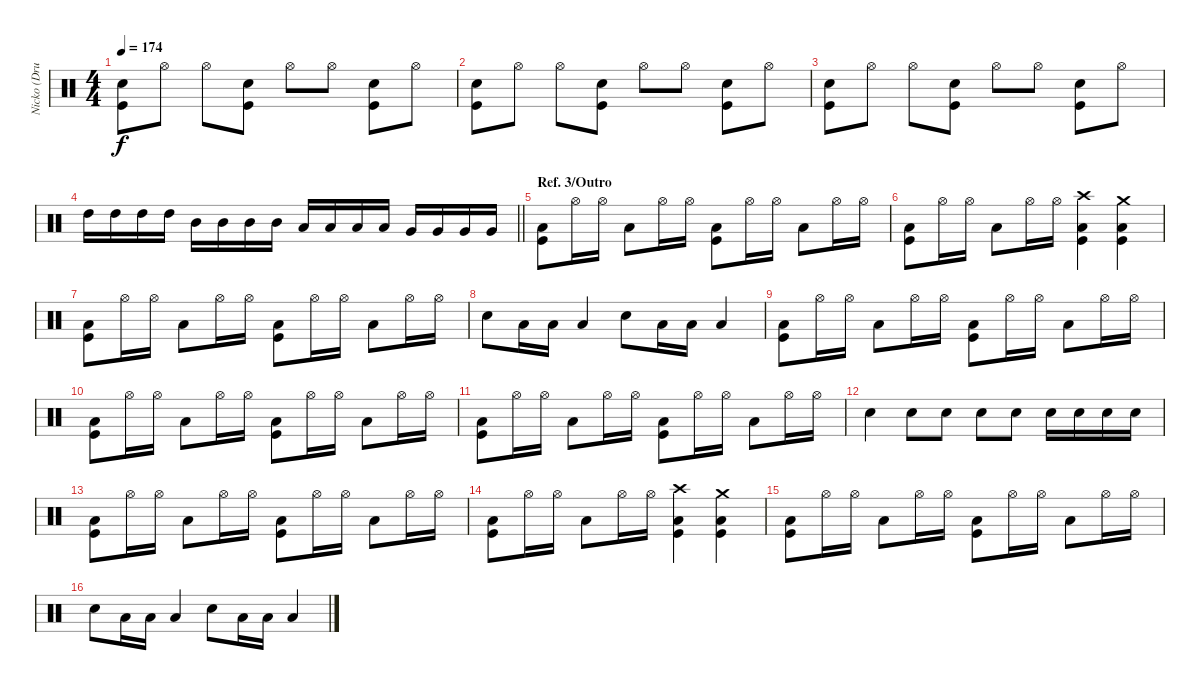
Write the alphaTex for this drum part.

\track ("Nicko (Drums)" "Nicko (Dru") {instrument percussion}
\staff {score}
\articulation defaults
\ts (4 4)
\tempo 174
\clef neutral
\ks c
("Snare (hit) 2" "Kick (hit)").8{dy f} "Hi-Hat (open)".8 "Hi-Hat (open)".8 ("Snare (hit) 2" "Kick (hit)").8 "Hi-Hat (open)".8 "Hi-Hat (open)".8 ("Snare (hit) 2" "Kick (hit)").8 "Hi-Hat (open)".8 |
("Snare (hit) 2" "Kick (hit)").8 "Hi-Hat (open)".8 "Hi-Hat (open)".8 ("Snare (hit) 2" "Kick (hit)").8 "Hi-Hat (open)".8 "Hi-Hat (open)".8 ("Snare (hit) 2" "Kick (hit)").8 "Hi-Hat (open)".8 |
("Snare (hit) 2" "Kick (hit)").8 "Hi-Hat (open)".8 "Hi-Hat (open)".8 ("Snare (hit) 2" "Kick (hit)").8 "Hi-Hat (open)".8 "Hi-Hat (open)".8 ("Snare (hit) 2" "Kick (hit)").8 "Hi-Hat (open)".8 |
\barLineRight lightlight "High Tom (hit)".16 "High Tom (hit)".16 "High Tom (hit)".16 "High Tom (hit)".16 "Mid Tom (hit)".16 "Mid Tom (hit)".16 "Mid Tom (hit)".16 "Mid Tom (hit)".16 "Low Tom (hit)".16 "Low Tom (hit)".16 "Low Tom (hit)".16 "Low Tom (hit)".16 "Very Low Tom (hit)".16 "Very Low Tom (hit)".16 "Very Low Tom (hit)".16 "Very Low Tom (hit)".16
|
\section ("" "Ref. 3/Outro")
("Low Tom (hit)" "Kick (hit)").8 "Hi-Hat (open)".16 "Hi-Hat (open)".16 "Low Tom (hit)".8 "Hi-Hat (open)".16 "Hi-Hat (open)".16 ("Low Tom (hit)" "Kick (hit)").8 "Hi-Hat (open)".16 "Hi-Hat (open)".16 "Low Tom (hit)".8 "Hi-Hat (open)".16 "Hi-Hat (open)".16 |
("Low Tom (hit)" "Kick (hit)").8 "Hi-Hat (open)".16 "Hi-Hat (open)".16 "Low Tom (hit)".8 "Hi-Hat (open)".16 "Hi-Hat (open)".16 ("Crash high (hit)" "Low Tom (hit)" "Kick (hit)").4 ("Crash medium (hit)" "Low Tom (hit)" "Kick (hit)").4 |
("Low Tom (hit)" "Kick (hit)").8 "Hi-Hat (open)".16 "Hi-Hat (open)".16 "Low Tom (hit)".8 "Hi-Hat (open)".16 "Hi-Hat (open)".16 ("Low Tom (hit)" "Kick (hit)").8 "Hi-Hat (open)".16 "Hi-Hat (open)".16 "Low Tom (hit)".8 "Hi-Hat (open)".16 "Hi-Hat (open)".16 |
"Snare (hit) 2".8 "Low Tom (hit)".16 "Low Tom (hit)".16 "Low Tom (hit)".4 "Snare (hit) 2".8 "Low Tom (hit)".16 "Low Tom (hit)".16 "Low Tom (hit)".4 |
("Low Tom (hit)" "Kick (hit)").8 "Hi-Hat (open)".16 "Hi-Hat (open)".16 "Low Tom (hit)".8 "Hi-Hat (open)".16 "Hi-Hat (open)".16 ("Low Tom (hit)" "Kick (hit)").8 "Hi-Hat (open)".16 "Hi-Hat (open)".16 "Low Tom (hit)".8 "Hi-Hat (open)".16 "Hi-Hat (open)".16 |
("Low Tom (hit)" "Kick (hit)").8 "Hi-Hat (open)".16 "Hi-Hat (open)".16 "Low Tom (hit)".8 "Hi-Hat (open)".16 "Hi-Hat (open)".16 ("Low Tom (hit)" "Kick (hit)").8 "Hi-Hat (open)".16 "Hi-Hat (open)".16 "Low Tom (hit)".8 "Hi-Hat (open)".16 "Hi-Hat (open)".16 |
("Low Tom (hit)" "Kick (hit)").8 "Hi-Hat (open)".16 "Hi-Hat (open)".16 "Low Tom (hit)".8 "Hi-Hat (open)".16 "Hi-Hat (open)".16 ("Low Tom (hit)" "Kick (hit)").8 "Hi-Hat (open)".16 "Hi-Hat (open)".16 "Low Tom (hit)".8 "Hi-Hat (open)".16 "Hi-Hat (open)".16 |
"Snare (hit) 2".4 "Snare (hit) 2".8 "Snare (hit) 2".8 "Snare (hit) 2".8 "Snare (hit) 2".8 "Snare (hit) 2".16 "Snare (hit) 2".16 "Snare (hit) 2".16 "Snare (hit) 2".16 |
("Low Tom (hit)" "Kick (hit)").8 "Hi-Hat (open)".16 "Hi-Hat (open)".16 "Low Tom (hit)".8 "Hi-Hat (open)".16 "Hi-Hat (open)".16 ("Low Tom (hit)" "Kick (hit)").8 "Hi-Hat (open)".16 "Hi-Hat (open)".16 "Low Tom (hit)".8 "Hi-Hat (open)".16 "Hi-Hat (open)".16 |
("Low Tom (hit)" "Kick (hit)").8 "Hi-Hat (open)".16 "Hi-Hat (open)".16 "Low Tom (hit)".8 "Hi-Hat (open)".16 "Hi-Hat (open)".16 ("Crash high (hit)" "Low Tom (hit)" "Kick (hit)").4 ("Crash medium (hit)" "Low Tom (hit)" "Kick (hit)").4 |
("Low Tom (hit)" "Kick (hit)").8 "Hi-Hat (open)".16 "Hi-Hat (open)".16 "Low Tom (hit)".8 "Hi-Hat (open)".16 "Hi-Hat (open)".16 ("Low Tom (hit)" "Kick (hit)").8 "Hi-Hat (open)".16 "Hi-Hat (open)".16 "Low Tom (hit)".8 "Hi-Hat (open)".16 "Hi-Hat (open)".16 |
"Snare (hit) 2".8 "Low Tom (hit)".16 "Low Tom (hit)".16 "Low Tom (hit)".4 "Snare (hit) 2".8 "Low Tom (hit)".16 "Low Tom (hit)".16 "Low Tom (hit)".4
